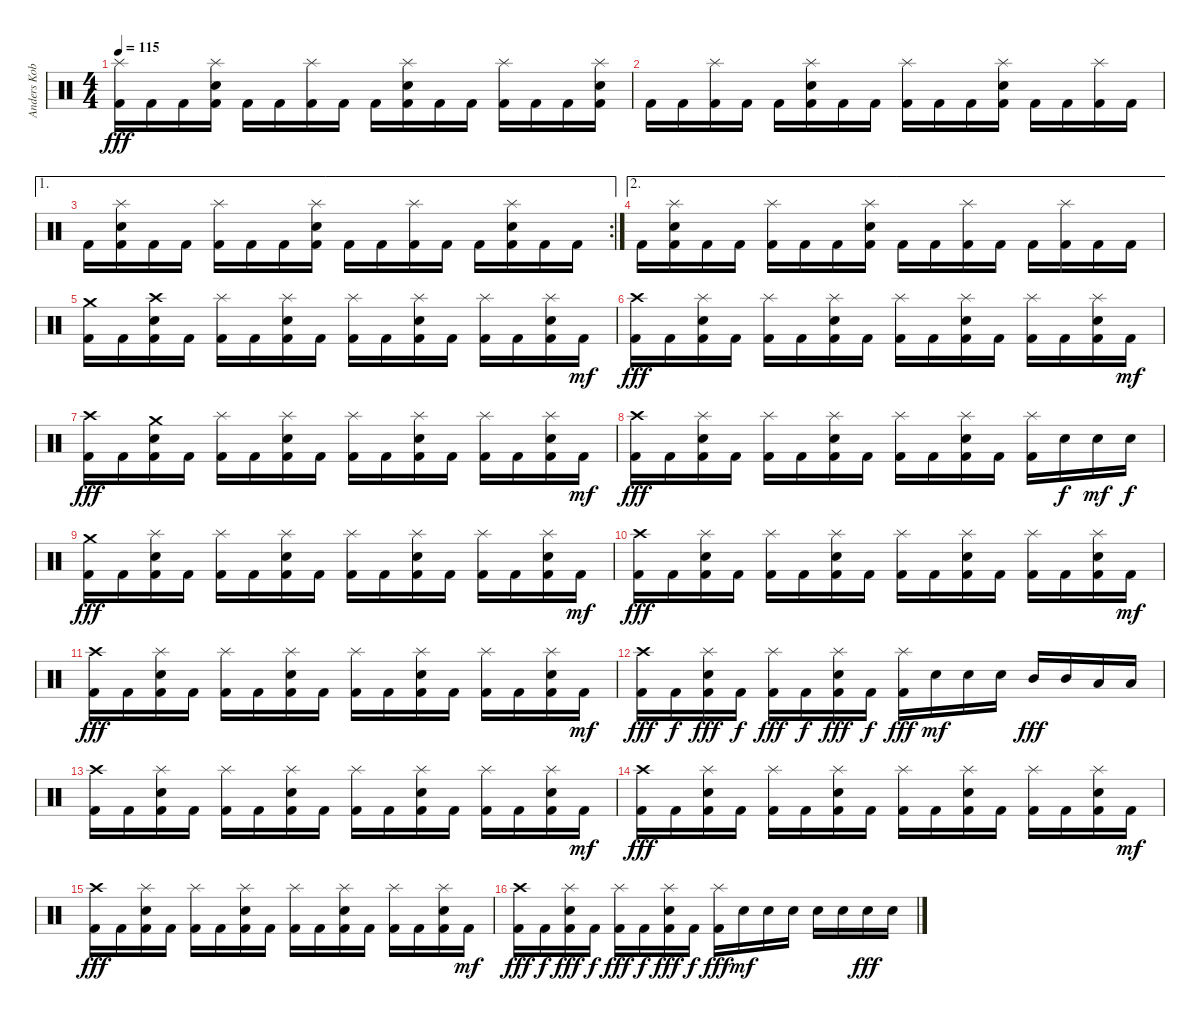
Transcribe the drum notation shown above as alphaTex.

\track ("Anders Kobro " "Anders Kob") {instrument percussion}
\staff {score}
\articulation defaults
\ts (4 4)
\tempo 115
\clef neutral
\ks c
("Splash (hit)" "Kick (hit) 2").16{dy fff} "Kick (hit) 2".16 "Kick (hit) 2".16 ("Splash (hit)" "Snare (hit) 2" "Kick (hit) 2").16 "Kick (hit) 2".16 "Kick (hit) 2".16 ("Splash (hit)" "Kick (hit) 2").16 "Kick (hit) 2".16 "Kick (hit) 2".16 ("Splash (hit)" "Snare (hit) 2" "Kick (hit) 2").16 "Kick (hit) 2".16 "Kick (hit) 2".16 ("Splash (hit)" "Kick (hit) 2").16 "Kick (hit) 2".16 "Kick (hit) 2".16 ("Splash (hit)" "Snare (hit) 2" "Kick (hit) 2").16 |
"Kick (hit) 2".16 "Kick (hit) 2".16 ("Splash (hit)" "Kick (hit) 2").16 "Kick (hit) 2".16 "Kick (hit) 2".16 ("Splash (hit)" "Snare (hit) 2" "Kick (hit) 2").16 "Kick (hit) 2".16 "Kick (hit) 2".16 ("Splash (hit)" "Kick (hit) 2").16 "Kick (hit) 2".16 "Kick (hit) 2".16 ("Splash (hit)" "Snare (hit) 2" "Kick (hit) 2").16 "Kick (hit) 2".16 "Kick (hit) 2".16 ("Splash (hit)" "Kick (hit) 2").16 "Kick (hit) 2".16 |
\ae 1
\rc 2 "Kick (hit) 2".16
("Splash (hit)" "Snare (hit) 2" "Kick (hit) 2").16 "Kick (hit) 2".16 "Kick (hit) 2".16 ("Splash (hit)" "Kick (hit) 2").16 "Kick (hit) 2".16 "Kick (hit) 2".16 ("Splash (hit)" "Snare (hit) 2" "Kick (hit) 2").16 "Kick (hit) 2".16 "Kick (hit) 2".16 ("Splash (hit)" "Kick (hit) 2").16 "Kick (hit) 2".16 "Kick (hit) 2".16 ("Splash (hit)" "Snare (hit) 2" "Kick (hit) 2").16 "Kick (hit) 2".16 "Kick (hit) 2".16 |
\ae 2 "Kick (hit) 2".16
("Splash (hit)" "Snare (hit) 2" "Kick (hit) 2").16 "Kick (hit) 2".16 "Kick (hit) 2".16 ("Splash (hit)" "Kick (hit) 2").16 "Kick (hit) 2".16 "Kick (hit) 2".16 ("Splash (hit)" "Snare (hit) 2" "Kick (hit) 2").16 "Kick (hit) 2".16 "Kick (hit) 2".16 ("Splash (hit)" "Kick (hit) 2").16 "Kick (hit) 2".16 "Kick (hit) 2".16 ("Splash (hit)" "Kick (hit) 2").16 "Kick (hit) 2".16 "Kick (hit) 2".16 |
("Crash medium (hit)" "Kick (hit) 2").16 "Kick (hit) 2".16 ("Crash high (hit)" "Snare (hit) 2" "Kick (hit) 2").16 "Kick (hit) 2".16 ("Splash (hit)" "Kick (hit) 2").16 "Kick (hit) 2".16 ("Splash (hit)" "Snare (hit) 2" "Kick (hit) 2").16 "Kick (hit) 2".16 ("Splash (hit)" "Kick (hit) 2").16 "Kick (hit) 2".16 ("Splash (hit)" "Snare (hit) 2" "Kick (hit) 2").16 "Kick (hit) 2".16 ("Splash (hit)" "Kick (hit) 2").16 "Kick (hit) 2".16 ("Splash (hit)" "Snare (hit) 2" "Kick (hit) 2").16 "Kick (hit) 2".16{dy mf} |
("Crash high (hit)" "Kick (hit) 2").16{dy fff} "Kick (hit) 2".16 ("Splash (hit)" "Snare (hit) 2" "Kick (hit) 2").16 "Kick (hit) 2".16 ("Splash (hit)" "Kick (hit) 2").16 "Kick (hit) 2".16 ("Splash (hit)" "Snare (hit) 2" "Kick (hit) 2").16 "Kick (hit) 2".16 ("Splash (hit)" "Kick (hit) 2").16 "Kick (hit) 2".16 ("Splash (hit)" "Snare (hit) 2" "Kick (hit) 2").16 "Kick (hit) 2".16 ("Splash (hit)" "Kick (hit) 2").16 "Kick (hit) 2".16 ("Splash (hit)" "Snare (hit) 2" "Kick (hit) 2").16 "Kick (hit) 2".16{dy mf} |
("Crash high (hit)" "Kick (hit) 2").16{dy fff} "Kick (hit) 2".16 ("Crash medium (hit)" "Snare (hit) 2" "Kick (hit) 2").16 "Kick (hit) 2".16 ("Splash (hit)" "Kick (hit) 2").16 "Kick (hit) 2".16 ("Splash (hit)" "Snare (hit) 2" "Kick (hit) 2").16 "Kick (hit) 2".16 ("Splash (hit)" "Kick (hit) 2").16 "Kick (hit) 2".16 ("Splash (hit)" "Snare (hit) 2" "Kick (hit) 2").16 "Kick (hit) 2".16 ("Splash (hit)" "Kick (hit) 2").16 "Kick (hit) 2".16 ("Splash (hit)" "Snare (hit) 2" "Kick (hit) 2").16 "Kick (hit) 2".16{dy mf} |
("Crash high (hit)" "Kick (hit) 2").16{dy fff} "Kick (hit) 2".16 ("Splash (hit)" "Snare (hit) 2" "Kick (hit) 2").16 "Kick (hit) 2".16 ("Splash (hit)" "Kick (hit) 2").16 "Kick (hit) 2".16 ("Splash (hit)" "Snare (hit) 2" "Kick (hit) 2").16 "Kick (hit) 2".16 ("Splash (hit)" "Kick (hit) 2").16 "Kick (hit) 2".16 ("Splash (hit)" "Snare (hit) 2" "Kick (hit) 2").16 "Kick (hit) 2".16 ("Splash (hit)" "Kick (hit) 2").16 "Snare (hit) 2".16{dy f} "Snare (hit) 2".16{dy mf} "Snare (hit) 2".16{dy f} |
("Crash medium (hit)" "Kick (hit) 2").16{dy fff} "Kick (hit) 2".16 ("Splash (hit)" "Snare (hit) 2" "Kick (hit) 2").16 "Kick (hit) 2".16 ("Splash (hit)" "Kick (hit) 2").16 "Kick (hit) 2".16 ("Splash (hit)" "Snare (hit) 2" "Kick (hit) 2").16 "Kick (hit) 2".16 ("Splash (hit)" "Kick (hit) 2").16 "Kick (hit) 2".16 ("Splash (hit)" "Snare (hit) 2" "Kick (hit) 2").16 "Kick (hit) 2".16 ("Splash (hit)" "Kick (hit) 2").16 "Kick (hit) 2".16 ("Splash (hit)" "Snare (hit) 2" "Kick (hit) 2").16 "Kick (hit) 2".16{dy mf} |
("Crash high (hit)" "Kick (hit) 2").16{dy fff} "Kick (hit) 2".16 ("Splash (hit)" "Snare (hit) 2" "Kick (hit) 2").16 "Kick (hit) 2".16 ("Splash (hit)" "Kick (hit) 2").16 "Kick (hit) 2".16 ("Splash (hit)" "Snare (hit) 2" "Kick (hit) 2").16 "Kick (hit) 2".16 ("Splash (hit)" "Kick (hit) 2").16 "Kick (hit) 2".16 ("Splash (hit)" "Snare (hit) 2" "Kick (hit) 2").16 "Kick (hit) 2".16 ("Splash (hit)" "Kick (hit) 2").16 "Kick (hit) 2".16 ("Splash (hit)" "Snare (hit) 2" "Kick (hit) 2").16 "Kick (hit) 2".16{dy mf} |
("Crash high (hit)" "Kick (hit) 2").16{dy fff} "Kick (hit) 2".16 ("Splash (hit)" "Snare (hit) 2" "Kick (hit) 2").16 "Kick (hit) 2".16 ("Splash (hit)" "Kick (hit) 2").16 "Kick (hit) 2".16 ("Splash (hit)" "Snare (hit) 2" "Kick (hit) 2").16 "Kick (hit) 2".16 ("Splash (hit)" "Kick (hit) 2").16 "Kick (hit) 2".16 ("Splash (hit)" "Snare (hit) 2" "Kick (hit) 2").16 "Kick (hit) 2".16 ("Splash (hit)" "Kick (hit) 2").16 "Kick (hit) 2".16 ("Splash (hit)" "Snare (hit) 2" "Kick (hit) 2").16 "Kick (hit) 2".16{dy mf} |
("Crash high (hit)" "Kick (hit) 2").16{dy fff} "Kick (hit) 2".16{dy f} ("Splash (hit)" "Snare (hit) 2" "Kick (hit) 2").16{dy fff} "Kick (hit) 2".16{dy f} ("Splash (hit)" "Kick (hit) 2").16{dy fff} "Kick (hit) 2".16{dy f} ("Splash (hit)" "Snare (hit) 2" "Kick (hit) 2").16{dy fff} "Kick (hit) 2".16{dy f} ("Splash (hit)" "Kick (hit) 2").16{dy fff} "Snare (hit) 2".16{dy mf} "Snare (hit) 2".16 "Snare (hit) 2".16 "Mid Tom (hit)".16{dy fff} "Mid Tom (hit)".16 "Low Tom (hit)".16 "Low Tom (hit)".16 |
("Crash high (hit)" "Kick (hit) 2").16 "Kick (hit) 2".16 ("Splash (hit)" "Snare (hit) 2" "Kick (hit) 2").16 "Kick (hit) 2".16 ("Splash (hit)" "Kick (hit) 2").16 "Kick (hit) 2".16 ("Splash (hit)" "Snare (hit) 2" "Kick (hit) 2").16 "Kick (hit) 2".16 ("Splash (hit)" "Kick (hit) 2").16 "Kick (hit) 2".16 ("Splash (hit)" "Snare (hit) 2" "Kick (hit) 2").16 "Kick (hit) 2".16 ("Splash (hit)" "Kick (hit) 2").16 "Kick (hit) 2".16 ("Splash (hit)" "Snare (hit) 2" "Kick (hit) 2").16 "Kick (hit) 2".16{dy mf} |
("Crash high (hit)" "Kick (hit) 2").16{dy fff} "Kick (hit) 2".16 ("Splash (hit)" "Snare (hit) 2" "Kick (hit) 2").16 "Kick (hit) 2".16 ("Splash (hit)" "Kick (hit) 2").16 "Kick (hit) 2".16 ("Splash (hit)" "Snare (hit) 2" "Kick (hit) 2").16 "Kick (hit) 2".16 ("Splash (hit)" "Kick (hit) 2").16 "Kick (hit) 2".16 ("Splash (hit)" "Snare (hit) 2" "Kick (hit) 2").16 "Kick (hit) 2".16 ("Splash (hit)" "Kick (hit) 2").16 "Kick (hit) 2".16 ("Splash (hit)" "Snare (hit) 2" "Kick (hit) 2").16 "Kick (hit) 2".16{dy mf} |
("Crash high (hit)" "Kick (hit) 2").16{dy fff} "Kick (hit) 2".16 ("Splash (hit)" "Snare (hit) 2" "Kick (hit) 2").16 "Kick (hit) 2".16 ("Splash (hit)" "Kick (hit) 2").16 "Kick (hit) 2".16 ("Splash (hit)" "Snare (hit) 2" "Kick (hit) 2").16 "Kick (hit) 2".16 ("Splash (hit)" "Kick (hit) 2").16 "Kick (hit) 2".16 ("Splash (hit)" "Snare (hit) 2" "Kick (hit) 2").16 "Kick (hit) 2".16 ("Splash (hit)" "Kick (hit) 2").16 "Kick (hit) 2".16 ("Splash (hit)" "Snare (hit) 2" "Kick (hit) 2").16 "Kick (hit) 2".16{dy mf} |
("Crash high (hit)" "Kick (hit) 2").16{dy fff} "Kick (hit) 2".16{dy f} ("Splash (hit)" "Snare (hit) 2" "Kick (hit) 2").16{dy fff} "Kick (hit) 2".16{dy f} ("Splash (hit)" "Kick (hit) 2").16{dy fff} "Kick (hit) 2".16{dy f} ("Splash (hit)" "Snare (hit) 2" "Kick (hit) 2").16{dy fff} "Kick (hit) 2".16{dy f} ("Splash (hit)" "Kick (hit) 2").16{dy fff} "Snare (hit) 2".16{dy mf} "Snare (hit) 2".16 "Snare (hit) 2".16 "Snare (hit) 2".16 "Snare (hit) 2".16 "Snare (hit) 2".16{dy fff} "Snare (hit) 2".16
